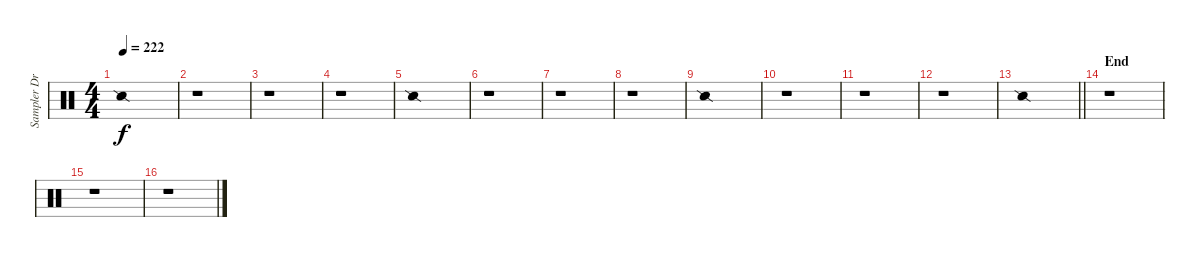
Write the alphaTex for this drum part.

\track ("Sampler Drums 2" "Sampler Dr") {instrument percussion}
\staff {score}
\articulation defaults
\ts (4 4)
\tempo 222
\clef neutral
\ks c "Snare (side stick) 2".1{dy f}
|
r.1 |
r.1 |
r.1 |
"Snare (side stick) 2".1 |
r.1 |
r.1 |
r.1 |
"Snare (side stick) 2".1 |
r.1 |
r.1 |
r.1 |
\barLineRight lightlight "Snare (side stick) 2".1
|
\section ("" "End")
r.1 |
r.1 |
r.1
